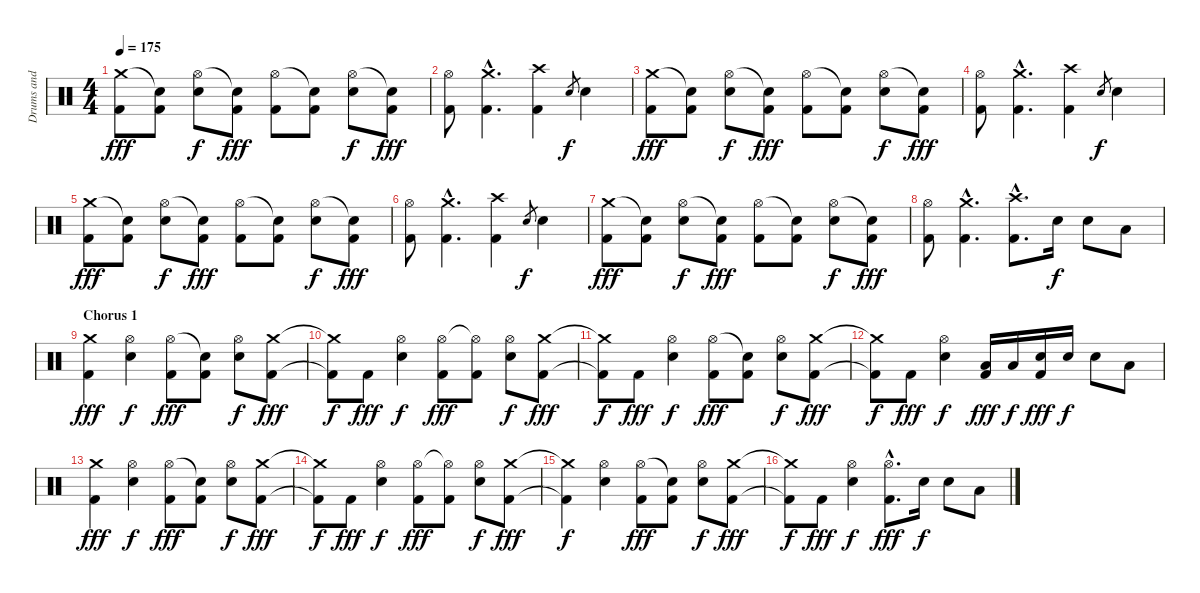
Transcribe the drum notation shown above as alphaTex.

\track ("Drums and Percussion" "Drums and ") {instrument percussion}
\staff {score}
\articulation defaults
\ts (4 4)
\tempo 175
\clef neutral
\ks c
("Crash medium (hit)" "Kick (hit) 2").8{dy fff} ("Snare (hit)"{t} "Kick (hit) 2").8 ("Hi-Hat (open)" "Snare (hit) 2").8{dy f} ("Snare (hit)"{t} "Kick (hit) 2").8{dy fff} ("Hi-Hat (open)" "Kick (hit) 2").8 ("Snare (hit)"{t} "Kick (hit) 2").8 ("Hi-Hat (open)" "Snare (hit) 2").8{dy f} ("Snare (hit)"{t} "Kick (hit) 2").8{dy fff} |
("Hi-Hat (open)" "Kick (hit) 2").8 ("Crash medium (hit)"{hac} "Kick (hit) 2"{hac}).4{d} ("Crash high (hit)" "Kick (hit) 2").4 "Snare (hit) 2".8{gr dy f} "Snare (hit) 2".4 |
("Crash medium (hit)" "Kick (hit) 2").8{dy fff} ("Snare (hit)"{t} "Kick (hit) 2").8 ("Hi-Hat (open)" "Snare (hit) 2").8{dy f} ("Snare (hit)"{t} "Kick (hit) 2").8{dy fff} ("Hi-Hat (open)" "Kick (hit) 2").8 ("Snare (hit)"{t} "Kick (hit) 2").8 ("Hi-Hat (open)" "Snare (hit) 2").8{dy f} ("Snare (hit)"{t} "Kick (hit) 2").8{dy fff} |
("Hi-Hat (open)" "Kick (hit) 2").8 ("Crash medium (hit)"{hac} "Kick (hit) 2"{hac}).4{d} ("Crash high (hit)" "Kick (hit) 2").4 "Snare (hit) 2".8{gr dy f} "Snare (hit) 2".4 |
("Crash medium (hit)" "Kick (hit) 2").8{dy fff} ("Snare (hit)"{t} "Kick (hit) 2").8 ("Hi-Hat (open)" "Snare (hit) 2").8{dy f} ("Snare (hit)"{t} "Kick (hit) 2").8{dy fff} ("Hi-Hat (open)" "Kick (hit) 2").8 ("Snare (hit)"{t} "Kick (hit) 2").8 ("Hi-Hat (open)" "Snare (hit) 2").8{dy f} ("Snare (hit)"{t} "Kick (hit) 2").8{dy fff} |
("Hi-Hat (open)" "Kick (hit) 2").8 ("Crash medium (hit)"{hac} "Kick (hit) 2"{hac}).4{d} ("Crash high (hit)" "Kick (hit) 2").4 "Snare (hit) 2".8{gr dy f} "Snare (hit) 2".4 |
("Crash medium (hit)" "Kick (hit) 2").8{dy fff} ("Snare (hit)"{t} "Kick (hit) 2").8 ("Hi-Hat (open)" "Snare (hit) 2").8{dy f} ("Snare (hit)"{t} "Kick (hit) 2").8{dy fff} ("Hi-Hat (open)" "Kick (hit) 2").8 ("Snare (hit)"{t} "Kick (hit) 2").8 ("Hi-Hat (open)" "Snare (hit) 2").8{dy f} ("Snare (hit)"{t} "Kick (hit) 2").8{dy fff} |
("Hi-Hat (open)" "Kick (hit) 2").8 ("Crash medium (hit)"{hac} "Kick (hit) 2"{hac}).4{d} ("Crash high (hit)"{hac} "Kick (hit) 2"{hac}).8{d} "Snare (hit) 2".16{dy f} "Snare (hit) 2".8 "Low Tom (hit)".8 |
\section ("" "Chorus 1")
("Crash medium (hit)" "Kick (hit) 2").4{dy fff} ("Hi-Hat (open)" "Snare (hit) 2").4{dy f} ("Hi-Hat (open)" "Kick (hit) 2").8{dy fff} ("Snare (hit)"{t} "Kick (hit) 2").8 ("Hi-Hat (open)" "Snare (hit) 2").8{dy f} ("Crash medium (hit)" "Kick (hit) 2").8{dy fff} |
("Crash medium (hit)"{t} "Kick (hit) 2"{t}).8{dy f} "Kick (hit) 2".8{dy fff} ("Hi-Hat (open)" "Snare (hit) 2").4{dy f} ("Hi-Hat (open)" "Kick (hit) 2").8{dy fff} ("Hi-Hat (open)"{t} "Kick (hit) 2").8 ("Hi-Hat (open)" "Snare (hit) 2").8{dy f} ("Crash medium (hit)" "Kick (hit) 2").8{dy fff} |
("Crash medium (hit)"{t} "Kick (hit) 2"{t}).8{dy f} "Kick (hit) 2".8{dy fff} ("Hi-Hat (open)" "Snare (hit) 2").4{dy f} ("Hi-Hat (open)" "Kick (hit) 2").8{dy fff} ("Snare (hit)"{t} "Kick (hit) 2").8 ("Hi-Hat (open)" "Snare (hit) 2").8{dy f} ("Crash medium (hit)" "Kick (hit) 2").8{dy fff} |
("Crash medium (hit)"{t} "Kick (hit) 2"{t}).8{dy f} "Kick (hit) 2".8{dy fff} ("Hi-Hat (open)" "Snare (hit) 2").4{dy f} ("Low Tom (hit)" "Kick (hit) 2").16{dy fff} "Low Tom (hit)".16{dy f} ("Snare (hit) 2" "Kick (hit) 2").16{dy fff} "Snare (hit) 2".16{dy f} "Snare (hit) 2".8 "Low Tom (hit)".8 |
("Crash medium (hit)" "Kick (hit) 2").4{dy fff} ("Hi-Hat (open)" "Snare (hit) 2").4{dy f} ("Hi-Hat (open)" "Kick (hit) 2").8{dy fff} ("Snare (hit)"{t} "Kick (hit) 2").8 ("Hi-Hat (open)" "Snare (hit) 2").8{dy f} ("Crash medium (hit)" "Kick (hit) 2").8{dy fff} |
("Crash medium (hit)"{t} "Kick (hit) 2"{t}).8{dy f} "Kick (hit) 2".8{dy fff} ("Hi-Hat (open)" "Snare (hit) 2").4{dy f} ("Hi-Hat (open)" "Kick (hit) 2").8{dy fff} ("Hi-Hat (open)"{t} "Kick (hit) 2").8 ("Hi-Hat (open)" "Snare (hit) 2").8{dy f} ("Crash medium (hit)" "Kick (hit) 2").8{dy fff} |
("Crash medium (hit)"{t} "Kick (hit) 2"{t}).4{dy f} ("Hi-Hat (open)" "Snare (hit) 2").4 ("Hi-Hat (open)" "Kick (hit) 2").8{dy fff} ("Snare (hit)"{t} "Kick (hit) 2").8 ("Hi-Hat (open)" "Snare (hit) 2").8{dy f} ("Crash medium (hit)" "Kick (hit) 2").8{dy fff} |
("Crash medium (hit)"{t} "Kick (hit) 2"{t}).8{dy f} "Kick (hit) 2".8{dy fff} ("Hi-Hat (open)" "Snare (hit) 2").4{dy f} ("Hi-Hat (open)"{hac} "Kick (hit) 2"{hac}).8{d dy fff} "Snare (hit) 2".16{dy f} "Snare (hit) 2".8 "Low Tom (hit)".8
